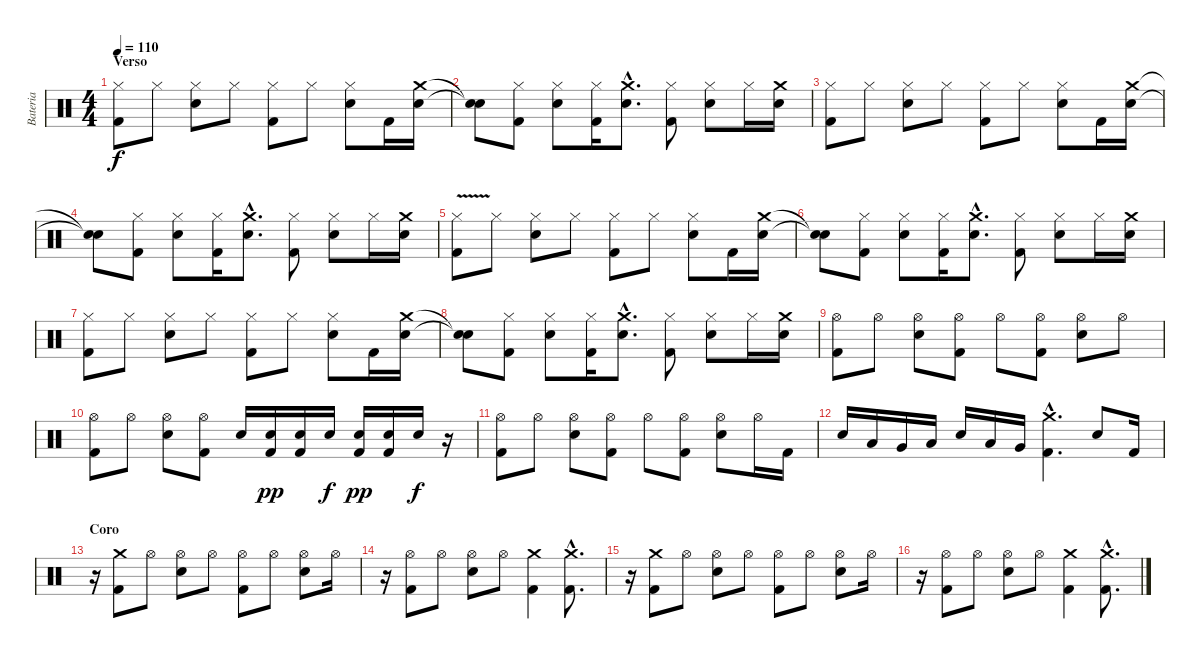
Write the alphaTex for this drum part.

\track ("Bateria" "Bateria") {instrument percussion}
\staff {score}
\articulation defaults
\ts (4 4)
\section ("" "Verso")
\tempo 110
\clef neutral
\ks c
("Hi-Hat (closed)" "Kick (hit) 2").8{dy f} "Hi-Hat (closed)".8 ("Hi-Hat (closed)" "Snare (hit) 2").8 "Hi-Hat (closed)".8 ("Hi-Hat (closed)" "Kick (hit) 2").8 "Hi-Hat (closed)".8 ("Hi-Hat (closed)" "Snare (hit) 2").8 "Kick (hit) 2".16 ("Crash medium (hit)" "Snare (hit) 2").16 |
("Snare (hit)"{t} "Snare (hit)"{t}).8 ("Hi-Hat (closed)" "Kick (hit) 2").8 ("Hi-Hat (closed)" "Snare (hit) 2").8 ("Hi-Hat (closed)" "Kick (hit) 2").16 ("Crash medium (hit)"{hac} "Snare (hit) 2"{hac}).8{d} ("Hi-Hat (closed)" "Kick (hit) 2").8 ("Hi-Hat (closed)" "Snare (hit) 2").8 "Hi-Hat (closed)".16 ("Crash medium (hit)" "Snare (hit) 2").16 |
("Hi-Hat (closed)" "Kick (hit) 2").8 "Hi-Hat (closed)".8 ("Hi-Hat (closed)" "Snare (hit) 2").8 "Hi-Hat (closed)".8 ("Hi-Hat (closed)" "Kick (hit) 2").8 "Hi-Hat (closed)".8 ("Hi-Hat (closed)" "Snare (hit) 2").8 "Kick (hit) 2".16 ("Crash medium (hit)" "Snare (hit) 2").16 |
("Snare (hit)"{t} "Snare (hit)"{t}).8 ("Hi-Hat (closed)" "Kick (hit) 2").8 ("Hi-Hat (closed)" "Snare (hit) 2").8 ("Hi-Hat (closed)" "Kick (hit) 2").16 ("Crash medium (hit)"{hac} "Snare (hit) 2"{hac}).8{d} ("Hi-Hat (closed)" "Kick (hit) 2").8 ("Hi-Hat (closed)" "Snare (hit) 2").8 "Hi-Hat (closed)".16 ("Crash medium (hit)" "Snare (hit) 2").16 |
("Hi-Hat (closed)"{v} "Kick (hit) 2").8 "Hi-Hat (closed)".8 ("Hi-Hat (closed)" "Snare (hit) 2").8 "Hi-Hat (closed)".8 ("Hi-Hat (closed)" "Kick (hit) 2").8 "Hi-Hat (closed)".8 ("Hi-Hat (closed)" "Snare (hit) 2").8 "Kick (hit) 2".16 ("Crash medium (hit)" "Snare (hit) 2").16 |
("Snare (hit)"{t} "Snare (hit)"{t}).8 ("Hi-Hat (closed)" "Kick (hit) 2").8 ("Hi-Hat (closed)" "Snare (hit) 2").8 ("Hi-Hat (closed)" "Kick (hit) 2").16 ("Crash medium (hit)"{hac} "Snare (hit) 2"{hac}).8{d} ("Hi-Hat (closed)" "Kick (hit) 2").8 ("Hi-Hat (closed)" "Snare (hit) 2").8 "Hi-Hat (closed)".16 ("Crash medium (hit)" "Snare (hit) 2").16 |
("Hi-Hat (closed)" "Kick (hit) 2").8 "Hi-Hat (closed)".8 ("Hi-Hat (closed)" "Snare (hit) 2").8 "Hi-Hat (closed)".8 ("Hi-Hat (closed)" "Kick (hit) 2").8 "Hi-Hat (closed)".8 ("Hi-Hat (closed)" "Snare (hit) 2").8 "Kick (hit) 2".16 ("Crash medium (hit)" "Snare (hit) 2").16 |
("Snare (hit)"{t} "Snare (hit)"{t}).8 ("Hi-Hat (closed)" "Kick (hit) 2").8 ("Hi-Hat (closed)" "Snare (hit) 2").8 ("Hi-Hat (closed)" "Kick (hit) 2").16 ("Crash medium (hit)"{hac} "Snare (hit) 2"{hac}).8{d} ("Hi-Hat (closed)" "Kick (hit) 2").8 ("Hi-Hat (closed)" "Snare (hit) 2").8 "Hi-Hat (closed)".16 ("Crash medium (hit)" "Snare (hit) 2").16 |
("Hi-Hat (open)" "Kick (hit) 2").8 "Hi-Hat (open)".8 ("Hi-Hat (open)" "Snare (hit) 2").8 ("Hi-Hat (open)" "Kick (hit) 2").8 "Hi-Hat (open)".8 ("Hi-Hat (open)" "Kick (hit) 2").8 ("Hi-Hat (open)" "Snare (hit) 2").8 "Hi-Hat (open)".8 |
("Hi-Hat (open)" "Kick (hit) 2").8 "Hi-Hat (open)".8 ("Hi-Hat (open)" "Snare (hit) 2").8 ("Hi-Hat (open)" "Kick (hit) 2").8 "Snare (hit) 2".16 ("Kick (hit) 2" "Snare (hit) 2").16{dy pp} ("Kick (hit) 2" "Snare (hit) 2").16 "Snare (hit) 2".16{dy f} ("Kick (hit) 2" "Snare (hit) 2").16{dy pp} ("Kick (hit) 2" "Snare (hit) 2").16 "Snare (hit) 2".16{dy f} r.16 |
("Hi-Hat (open)" "Kick (hit) 2").8 "Hi-Hat (open)".8 ("Hi-Hat (open)" "Snare (hit) 2").8 ("Hi-Hat (open)" "Kick (hit) 2").8 "Hi-Hat (open)".8 ("Hi-Hat (open)" "Kick (hit) 2").8 ("Hi-Hat (open)" "Snare (hit) 2").8 "Hi-Hat (open)".16 "Kick (hit) 2".16 |
"Snare (hit) 2".16 "Low Tom (hit)".16 "Very Low Tom (hit)".16 "Low Floor Tom (hit)".16 "Snare (hit) 2".16 "Low Tom (hit)".16 "Very Low Tom (hit)".16 ("Crash medium (hit)"{hac} "Kick (hit) 2"{hac}).4{d} "Snare (hit) 2".8 "Kick (hit) 2".16 |
\section ("" "Coro")
r.16 ("Crash medium (hit)" "Kick (hit) 2").8 "Hi-Hat (open)".8 ("Hi-Hat (open)" "Snare (hit) 2").8 "Hi-Hat (open)".8 ("Hi-Hat (open)" "Kick (hit) 2").8 "Hi-Hat (open)".8 ("Hi-Hat (open)" "Snare (hit) 2").8 "Hi-Hat (open)".16 |
r.16 ("Hi-Hat (open)" "Kick (hit) 2").8 "Hi-Hat (open)".8 ("Hi-Hat (open)" "Snare (hit) 2").8 "Hi-Hat (open)".8 ("Crash medium (hit)" "Kick (hit) 2").4 ("Crash medium (hit)"{hac} "Kick (hit) 2"{hac}).8{d} |
r.16 ("Crash medium (hit)" "Kick (hit) 2").8 "Hi-Hat (open)".8 ("Hi-Hat (open)" "Snare (hit) 2").8 "Hi-Hat (open)".8 ("Hi-Hat (open)" "Kick (hit) 2").8 "Hi-Hat (open)".8 ("Hi-Hat (open)" "Snare (hit) 2").8 "Hi-Hat (open)".16 |
r.16 ("Hi-Hat (open)" "Kick (hit) 2").8 "Hi-Hat (open)".8 ("Hi-Hat (open)" "Snare (hit) 2").8 "Hi-Hat (open)".8 ("Crash medium (hit)" "Kick (hit) 2").4 ("Crash medium (hit)"{hac} "Kick (hit) 2"{hac}).8{d}
